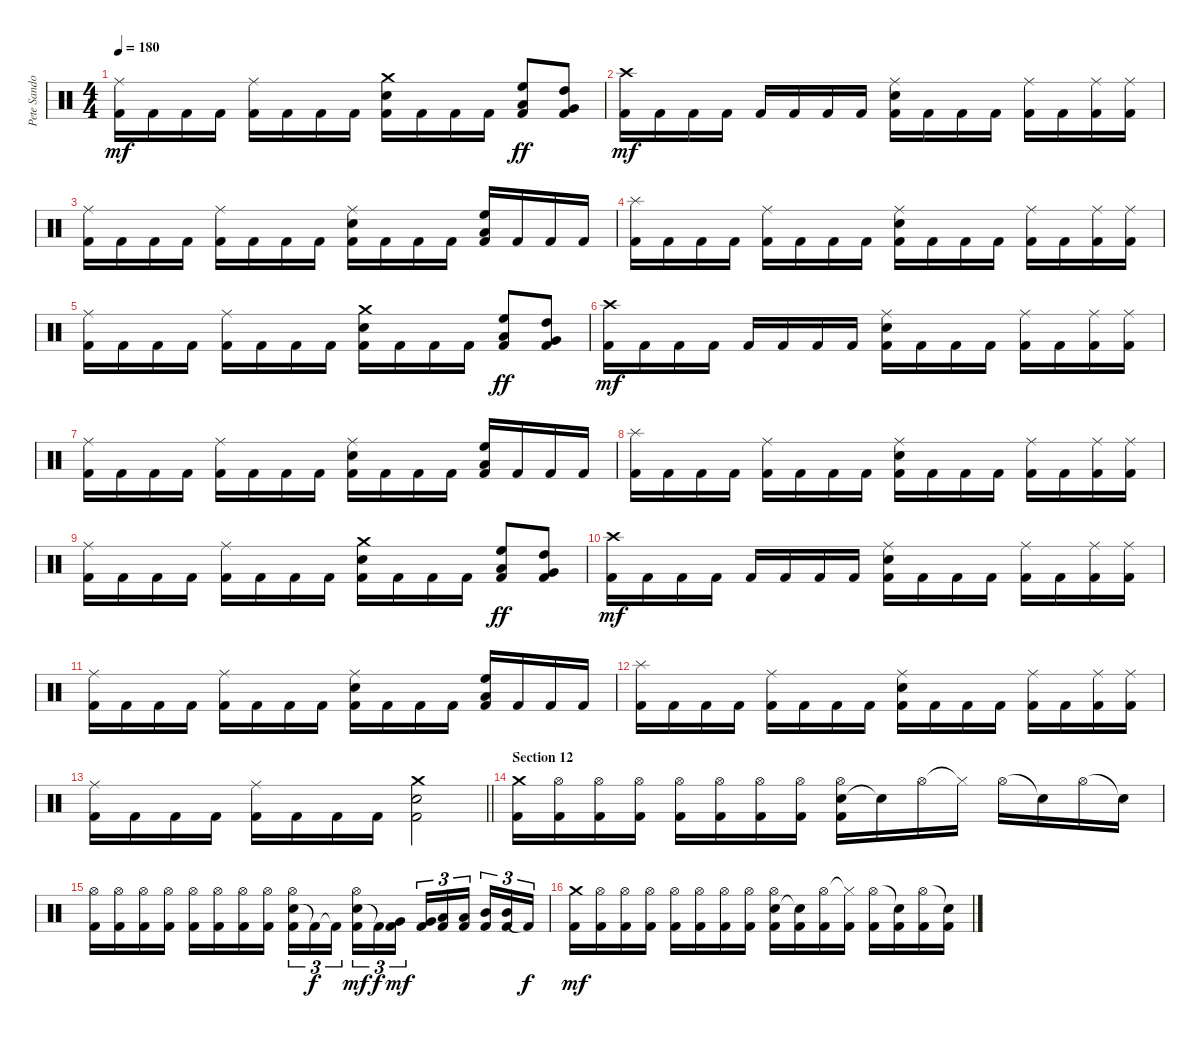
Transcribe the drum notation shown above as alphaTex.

\track ("Pete Sandoval" "Pete Sando") {instrument percussion}
\staff {score}
\articulation defaults
\ts (4 4)
\tempo 180
\clef neutral
\ks c
("Ride (middle)" "Kick (hit) 2").16{dy mf} "Kick (hit) 2".16 "Kick (hit) 2".16 "Kick (hit) 2".16 ("Ride (middle)" "Kick (hit) 2").16 "Kick (hit) 2".16 "Kick (hit) 2".16 "Kick (hit) 2".16 ("Snare (hit) 2" "Crash medium (hit)" "Kick (hit) 2").16 "Kick (hit) 2".16 "Kick (hit) 2".16 "Kick (hit) 2".16 ("High Floor Tom (hit)" "Low Tom (hit)" "Kick (hit) 2").8{dy ff} ("High Tom (hit)" "Very Low Tom (hit)" "Kick (hit) 2").8 |
("Crash high (hit)" "Kick (hit) 2").16{dy mf} "Kick (hit) 2".16 "Kick (hit) 2".16 "Kick (hit) 2".16 "Kick (hit) 2".16 "Kick (hit) 2".16 "Kick (hit) 2".16 "Kick (hit) 2".16 ("Snare (hit) 2" "Ride (middle)" "Kick (hit) 2").16 "Kick (hit) 2".16 "Kick (hit) 2".16 "Kick (hit) 2".16 ("Ride (middle)" "Kick (hit) 2").16 "Kick (hit) 2".16 ("Ride (middle)" "Kick (hit) 2").16 ("Ride (middle)" "Kick (hit) 2").16 |
("Ride (middle)" "Kick (hit) 2").16 "Kick (hit) 2".16 "Kick (hit) 2".16 "Kick (hit) 2".16 ("Ride (middle)" "Kick (hit) 2").16 "Kick (hit) 2".16 "Kick (hit) 2".16 "Kick (hit) 2".16 ("Snare (hit) 2" "Ride (middle)" "Kick (hit) 2").16 "Kick (hit) 2".16 "Kick (hit) 2".16 "Kick (hit) 2".16 ("High Floor Tom (hit)" "Low Tom (hit)" "Kick (hit) 2").16 "Kick (hit) 2".16 "Kick (hit) 2".16 "Kick (hit) 2".16 |
("Splash (hit)" "Kick (hit) 2").16 "Kick (hit) 2".16 "Kick (hit) 2".16 "Kick (hit) 2".16 ("Ride (middle)" "Kick (hit) 2").16 "Kick (hit) 2".16 "Kick (hit) 2".16 "Kick (hit) 2".16 ("Snare (hit) 2" "Ride (middle)" "Kick (hit) 2").16 "Kick (hit) 2".16 "Kick (hit) 2".16 "Kick (hit) 2".16 ("Ride (middle)" "Kick (hit) 2").16 "Kick (hit) 2".16 ("Ride (middle)" "Kick (hit) 2").16 ("Ride (middle)" "Kick (hit) 2").16 |
("Ride (middle)" "Kick (hit) 2").16 "Kick (hit) 2".16 "Kick (hit) 2".16 "Kick (hit) 2".16 ("Ride (middle)" "Kick (hit) 2").16 "Kick (hit) 2".16 "Kick (hit) 2".16 "Kick (hit) 2".16 ("Snare (hit) 2" "Crash medium (hit)" "Kick (hit) 2").16 "Kick (hit) 2".16 "Kick (hit) 2".16 "Kick (hit) 2".16 ("High Floor Tom (hit)" "Low Tom (hit)" "Kick (hit) 2").8{dy ff} ("High Tom (hit)" "Very Low Tom (hit)" "Kick (hit) 2").8 |
("Crash high (hit)" "Kick (hit) 2").16{dy mf} "Kick (hit) 2".16 "Kick (hit) 2".16 "Kick (hit) 2".16 "Kick (hit) 2".16 "Kick (hit) 2".16 "Kick (hit) 2".16 "Kick (hit) 2".16 ("Snare (hit) 2" "Ride (middle)" "Kick (hit) 2").16 "Kick (hit) 2".16 "Kick (hit) 2".16 "Kick (hit) 2".16 ("Ride (middle)" "Kick (hit) 2").16 "Kick (hit) 2".16 ("Ride (middle)" "Kick (hit) 2").16 ("Ride (middle)" "Kick (hit) 2").16 |
("Ride (middle)" "Kick (hit) 2").16 "Kick (hit) 2".16 "Kick (hit) 2".16 "Kick (hit) 2".16 ("Ride (middle)" "Kick (hit) 2").16 "Kick (hit) 2".16 "Kick (hit) 2".16 "Kick (hit) 2".16 ("Snare (hit) 2" "Ride (middle)" "Kick (hit) 2").16 "Kick (hit) 2".16 "Kick (hit) 2".16 "Kick (hit) 2".16 ("High Floor Tom (hit)" "Low Tom (hit)" "Kick (hit) 2").16 "Kick (hit) 2".16 "Kick (hit) 2".16 "Kick (hit) 2".16 |
("Splash (hit)" "Kick (hit) 2").16 "Kick (hit) 2".16 "Kick (hit) 2".16 "Kick (hit) 2".16 ("Ride (middle)" "Kick (hit) 2").16 "Kick (hit) 2".16 "Kick (hit) 2".16 "Kick (hit) 2".16 ("Snare (hit) 2" "Ride (middle)" "Kick (hit) 2").16 "Kick (hit) 2".16 "Kick (hit) 2".16 "Kick (hit) 2".16 ("Ride (middle)" "Kick (hit) 2").16 "Kick (hit) 2".16 ("Ride (middle)" "Kick (hit) 2").16 ("Ride (middle)" "Kick (hit) 2").16 |
("Ride (middle)" "Kick (hit) 2").16 "Kick (hit) 2".16 "Kick (hit) 2".16 "Kick (hit) 2".16 ("Ride (middle)" "Kick (hit) 2").16 "Kick (hit) 2".16 "Kick (hit) 2".16 "Kick (hit) 2".16 ("Snare (hit) 2" "Crash medium (hit)" "Kick (hit) 2").16 "Kick (hit) 2".16 "Kick (hit) 2".16 "Kick (hit) 2".16 ("High Floor Tom (hit)" "Low Tom (hit)" "Kick (hit) 2").8{dy ff} ("High Tom (hit)" "Very Low Tom (hit)" "Kick (hit) 2").8 |
("Crash high (hit)" "Kick (hit) 2").16{dy mf} "Kick (hit) 2".16 "Kick (hit) 2".16 "Kick (hit) 2".16 "Kick (hit) 2".16 "Kick (hit) 2".16 "Kick (hit) 2".16 "Kick (hit) 2".16 ("Snare (hit) 2" "Ride (middle)" "Kick (hit) 2").16 "Kick (hit) 2".16 "Kick (hit) 2".16 "Kick (hit) 2".16 ("Ride (middle)" "Kick (hit) 2").16 "Kick (hit) 2".16 ("Ride (middle)" "Kick (hit) 2").16 ("Ride (middle)" "Kick (hit) 2").16 |
("Ride (middle)" "Kick (hit) 2").16 "Kick (hit) 2".16 "Kick (hit) 2".16 "Kick (hit) 2".16 ("Ride (middle)" "Kick (hit) 2").16 "Kick (hit) 2".16 "Kick (hit) 2".16 "Kick (hit) 2".16 ("Snare (hit) 2" "Ride (middle)" "Kick (hit) 2").16 "Kick (hit) 2".16 "Kick (hit) 2".16 "Kick (hit) 2".16 ("High Floor Tom (hit)" "Low Tom (hit)" "Kick (hit) 2").16 "Kick (hit) 2".16 "Kick (hit) 2".16 "Kick (hit) 2".16 |
("Splash (hit)" "Kick (hit) 2").16 "Kick (hit) 2".16 "Kick (hit) 2".16 "Kick (hit) 2".16 ("Ride (middle)" "Kick (hit) 2").16 "Kick (hit) 2".16 "Kick (hit) 2".16 "Kick (hit) 2".16 ("Snare (hit) 2" "Ride (middle)" "Kick (hit) 2").16 "Kick (hit) 2".16 "Kick (hit) 2".16 "Kick (hit) 2".16 ("Ride (middle)" "Kick (hit) 2").16 "Kick (hit) 2".16 ("Ride (middle)" "Kick (hit) 2").16 ("Ride (middle)" "Kick (hit) 2").16 |
\barLineRight lightlight
("Ride (middle)" "Kick (hit) 2").16 "Kick (hit) 2".16 "Kick (hit) 2".16 "Kick (hit) 2".16 ("Ride (middle)" "Kick (hit) 2").16 "Kick (hit) 2".16 "Kick (hit) 2".16 "Kick (hit) 2".16 ("Snare (hit) 2" "Crash medium (hit)" "Kick (hit) 2").2 |
\section ("" "Section 12")
("Crash medium (hit)" "Kick (hit) 2").16 ("Hi-Hat (open)" "Kick (hit) 2").16 ("Hi-Hat (open)" "Kick (hit) 2").16 ("Hi-Hat (open)" "Kick (hit) 2").16 ("Hi-Hat (open)" "Kick (hit) 2").16 ("Hi-Hat (open)" "Kick (hit) 2").16 ("Hi-Hat (open)" "Kick (hit) 2").16 ("Hi-Hat (open)" "Kick (hit) 2").16 ("Snare (hit) 2" "Hi-Hat (open)" "Kick (hit) 2").16 "Snare (hit)"{t}.16 "Hi-Hat (open)".16 "Hi-Hat (closed)"{t}.16 "Hi-Hat (open)".16 "Snare (hit)"{t}.16 "Hi-Hat (open)".16 "Snare (hit)"{t}.16 |
("Hi-Hat (open)" "Kick (hit) 2").16 ("Hi-Hat (open)" "Kick (hit) 2").16 ("Hi-Hat (open)" "Kick (hit) 2").16 ("Hi-Hat (open)" "Kick (hit) 2").16 ("Hi-Hat (open)" "Kick (hit) 2").16 ("Hi-Hat (open)" "Kick (hit) 2").16 ("Hi-Hat (open)" "Kick (hit) 2").16 ("Hi-Hat (open)" "Kick (hit) 2").16 ("Snare (hit) 2" "Hi-Hat (open)" "Kick (hit) 2").16{tu (3 2)} "Kick (hit) 2"{t}.16{tu (3 2) dy f} "Kick (hit) 2"{t}.16{tu (3 2) beam splitsecondary} ("Snare (hit) 2" "Hi-Hat (open)" "Kick (hit) 2").16{tu (3 2) dy mf} "Kick (hit) 2"{t}.16{tu (3 2) dy f} ("Very Low Tom (hit)" "Kick (hit) 2").16{tu (3 2) dy mf} ("Very Low Tom (hit)" "Kick (hit) 2").16{tu (3 2)} ("Low Tom (hit)" "Kick (hit) 2").16{tu (3 2)} ("Low Tom (hit)" "Kick (hit) 2").16{tu (3 2) beam splitsecondary} ("Mid Tom (hit)" "Kick (hit) 2").16{tu (3 2)} ("Mid Tom (hit)" "Kick (hit) 2").16{tu (3 2)} "Kick (hit) 2"{t}.16{tu (3 2) dy f} |
("Crash medium (hit)" "Kick (hit) 2").16{dy mf} ("Hi-Hat (open)" "Kick (hit) 2").16 ("Hi-Hat (open)" "Kick (hit) 2").16 ("Hi-Hat (open)" "Kick (hit) 2").16 ("Hi-Hat (open)" "Kick (hit) 2").16 ("Hi-Hat (open)" "Kick (hit) 2").16 ("Hi-Hat (open)" "Kick (hit) 2").16 ("Hi-Hat (open)" "Kick (hit) 2").16 ("Snare (hit) 2" "Hi-Hat (open)" "Kick (hit) 2").16 ("Snare (hit)"{t} "Kick (hit) 2").16 ("Hi-Hat (open)" "Kick (hit) 2").16 ("Hi-Hat (closed)"{t} "Kick (hit) 2").16 ("Hi-Hat (open)" "Kick (hit) 2").16 ("Snare (hit)"{t} "Kick (hit) 2").16 ("Hi-Hat (open)" "Kick (hit) 2").16 ("Snare (hit)"{t} "Kick (hit) 2").16
